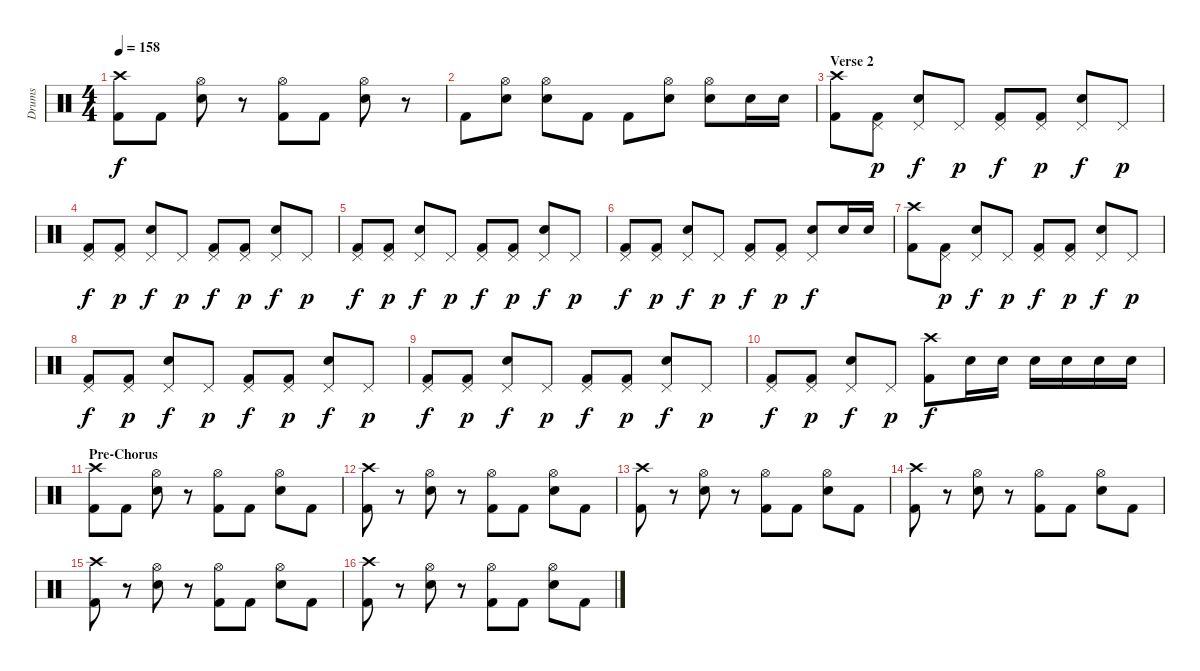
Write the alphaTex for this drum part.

\track ("Drums" "Drums") {instrument percussion}
\staff {score}
\articulation defaults
\ts (4 4)
\tempo 158
\clef neutral
\ks c
("Crash high (hit)" "Kick (hit) 2").8{dy f} "Kick (hit) 2".8 ("Hi-Hat (open)" "Electric Snare (hit)").8 r.8 ("Hi-Hat (open)" "Kick (hit) 2").8 "Kick (hit) 2".8 ("Hi-Hat (open)" "Electric Snare (hit)").8 r.8 |
"Kick (hit) 2".8 ("Hi-Hat (open)" "Electric Snare (hit)").8 ("Hi-Hat (open)" "Electric Snare (hit)").8 "Kick (hit) 2".8 "Kick (hit) 2".8 ("Hi-Hat (open)" "Electric Snare (hit)").8 ("Hi-Hat (open)" "Electric Snare (hit)").8 "Electric Snare (hit)".16 "Electric Snare (hit)".16 |
\section ("" "Verse 2")
("Crash high (hit)" "Kick (hit) 2").8 ("Pedal Hi-Hat (hit)" "Kick (hit) 2").8{dy p} ("Pedal Hi-Hat (hit)" "Electric Snare (hit)").8{dy f} "Pedal Hi-Hat (hit)".8{dy p} ("Pedal Hi-Hat (hit)" "Kick (hit) 2").8{dy f} ("Pedal Hi-Hat (hit)" "Kick (hit) 2").8{dy p} ("Pedal Hi-Hat (hit)" "Electric Snare (hit)").8{dy f} "Pedal Hi-Hat (hit)".8{dy p} |
("Pedal Hi-Hat (hit)" "Kick (hit) 2").8{dy f} ("Pedal Hi-Hat (hit)" "Kick (hit) 2").8{dy p} ("Pedal Hi-Hat (hit)" "Electric Snare (hit)").8{dy f} "Pedal Hi-Hat (hit)".8{dy p} ("Pedal Hi-Hat (hit)" "Kick (hit) 2").8{dy f} ("Pedal Hi-Hat (hit)" "Kick (hit) 2").8{dy p} ("Pedal Hi-Hat (hit)" "Electric Snare (hit)").8{dy f} "Pedal Hi-Hat (hit)".8{dy p} |
("Pedal Hi-Hat (hit)" "Kick (hit) 2").8{dy f} ("Pedal Hi-Hat (hit)" "Kick (hit) 2").8{dy p} ("Pedal Hi-Hat (hit)" "Electric Snare (hit)").8{dy f} "Pedal Hi-Hat (hit)".8{dy p} ("Pedal Hi-Hat (hit)" "Kick (hit) 2").8{dy f} ("Pedal Hi-Hat (hit)" "Kick (hit) 2").8{dy p} ("Pedal Hi-Hat (hit)" "Electric Snare (hit)").8{dy f} "Pedal Hi-Hat (hit)".8{dy p} |
("Pedal Hi-Hat (hit)" "Kick (hit) 2").8{dy f} ("Pedal Hi-Hat (hit)" "Kick (hit) 2").8{dy p} ("Pedal Hi-Hat (hit)" "Electric Snare (hit)").8{dy f} "Pedal Hi-Hat (hit)".8{dy p} ("Pedal Hi-Hat (hit)" "Kick (hit) 2").8{dy f} ("Pedal Hi-Hat (hit)" "Kick (hit) 2").8{dy p} ("Pedal Hi-Hat (hit)" "Electric Snare (hit)").8{dy f} "Electric Snare (hit)".16 "Electric Snare (hit)".16 |
("Crash high (hit)" "Kick (hit) 2").8 ("Pedal Hi-Hat (hit)" "Kick (hit) 2").8{dy p} ("Pedal Hi-Hat (hit)" "Electric Snare (hit)").8{dy f} "Pedal Hi-Hat (hit)".8{dy p} ("Pedal Hi-Hat (hit)" "Kick (hit) 2").8{dy f} ("Pedal Hi-Hat (hit)" "Kick (hit) 2").8{dy p} ("Pedal Hi-Hat (hit)" "Electric Snare (hit)").8{dy f} "Pedal Hi-Hat (hit)".8{dy p} |
("Pedal Hi-Hat (hit)" "Kick (hit) 2").8{dy f} ("Pedal Hi-Hat (hit)" "Kick (hit) 2").8{dy p} ("Pedal Hi-Hat (hit)" "Electric Snare (hit)").8{dy f} "Pedal Hi-Hat (hit)".8{dy p} ("Pedal Hi-Hat (hit)" "Kick (hit) 2").8{dy f} ("Pedal Hi-Hat (hit)" "Kick (hit) 2").8{dy p} ("Pedal Hi-Hat (hit)" "Electric Snare (hit)").8{dy f} "Pedal Hi-Hat (hit)".8{dy p} |
("Pedal Hi-Hat (hit)" "Kick (hit) 2").8{dy f} ("Pedal Hi-Hat (hit)" "Kick (hit) 2").8{dy p} ("Pedal Hi-Hat (hit)" "Electric Snare (hit)").8{dy f} "Pedal Hi-Hat (hit)".8{dy p} ("Pedal Hi-Hat (hit)" "Kick (hit) 2").8{dy f} ("Pedal Hi-Hat (hit)" "Kick (hit) 2").8{dy p} ("Pedal Hi-Hat (hit)" "Electric Snare (hit)").8{dy f} "Pedal Hi-Hat (hit)".8{dy p} |
("Pedal Hi-Hat (hit)" "Kick (hit) 2").8{dy f} ("Pedal Hi-Hat (hit)" "Kick (hit) 2").8{dy p} ("Pedal Hi-Hat (hit)" "Electric Snare (hit)").8{dy f} "Pedal Hi-Hat (hit)".8{dy p} ("Crash high (hit)" "Kick (hit) 2").8{dy f} "Electric Snare (hit)".16 "Electric Snare (hit)".16 "Electric Snare (hit)".16 "Electric Snare (hit)".16 "Electric Snare (hit)".16 "Electric Snare (hit)".16 |
\section ("" "Pre-Chorus")
("Crash high (hit)" "Kick (hit) 2").8 "Kick (hit) 2".8 ("Hi-Hat (open)" "Electric Snare (hit)").8 r.8 ("Hi-Hat (open)" "Kick (hit) 2").8 "Kick (hit) 2".8 ("Hi-Hat (open)" "Electric Snare (hit)").8 "Kick (hit) 2".8 |
("Crash high (hit)" "Kick (hit) 2").8 r.8 ("Hi-Hat (open)" "Electric Snare (hit)").8 r.8 ("Hi-Hat (open)" "Kick (hit) 2").8 "Kick (hit) 2".8 ("Hi-Hat (open)" "Electric Snare (hit)").8 "Kick (hit) 2".8 |
("Crash high (hit)" "Kick (hit) 2").8 r.8 ("Hi-Hat (open)" "Electric Snare (hit)").8 r.8 ("Hi-Hat (open)" "Kick (hit) 2").8 "Kick (hit) 2".8 ("Hi-Hat (open)" "Electric Snare (hit)").8 "Kick (hit) 2".8 |
("Crash high (hit)" "Kick (hit) 2").8 r.8 ("Hi-Hat (open)" "Electric Snare (hit)").8 r.8 ("Hi-Hat (open)" "Kick (hit) 2").8 "Kick (hit) 2".8 ("Hi-Hat (open)" "Electric Snare (hit)").8 "Kick (hit) 2".8 |
("Crash high (hit)" "Kick (hit) 2").8 r.8 ("Hi-Hat (open)" "Electric Snare (hit)").8 r.8 ("Hi-Hat (open)" "Kick (hit) 2").8 "Kick (hit) 2".8 ("Hi-Hat (open)" "Electric Snare (hit)").8 "Kick (hit) 2".8 |
("Crash high (hit)" "Kick (hit) 2").8 r.8 ("Hi-Hat (open)" "Electric Snare (hit)").8 r.8 ("Hi-Hat (open)" "Kick (hit) 2").8 "Kick (hit) 2".8 ("Hi-Hat (open)" "Electric Snare (hit)").8 "Kick (hit) 2".8
